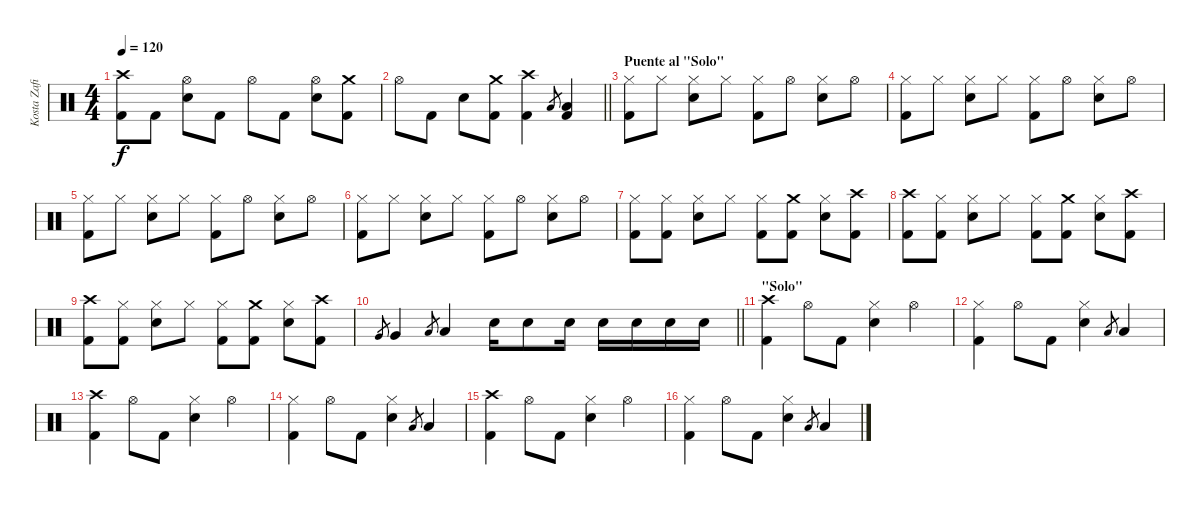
\track ("Kosta Zafiriou" "Kosta Zafi") {instrument percussion}
\staff {score}
\articulation defaults
\ts (4 4)
\tempo 120
\clef neutral
\ks c
("Crash high (hit)" "Kick (hit) 2").8{dy f} "Kick (hit) 2".8 ("Hi-Hat (open)" "Electric Snare (hit)").8 "Kick (hit) 2".8 "Hi-Hat (open)".8 "Kick (hit) 2".8 ("Hi-Hat (open)" "Electric Snare (hit)").8 ("Crash medium (hit)" "Kick (hit) 2").8 |
\barLineRight lightlight "Hi-Hat (open)".8 "Kick (hit) 2".8 "Electric Snare (hit)".8
("Crash medium (hit)" "Kick (hit) 2").8 ("Crash high (hit)" "Kick (hit) 2").4 "Low Floor Tom (hit)".8{gr} ("Low Floor Tom (hit)" "Kick (hit) 2").4 |
\section ("" "Puente al \"Solo\"")
("Hi-Hat (closed)" "Kick (hit) 2").8 "Hi-Hat (closed)".8 ("Hi-Hat (closed)" "Electric Snare (hit)").8 "Hi-Hat (closed)".8 ("Hi-Hat (closed)" "Kick (hit) 2").8 "Hi-Hat (open)".8 ("Hi-Hat (closed)" "Electric Snare (hit)").8 "Hi-Hat (open)".8 |
("Hi-Hat (closed)" "Kick (hit) 2").8 "Hi-Hat (closed)".8 ("Hi-Hat (closed)" "Electric Snare (hit)").8 "Hi-Hat (closed)".8 ("Hi-Hat (closed)" "Kick (hit) 2").8 "Hi-Hat (open)".8 ("Hi-Hat (closed)" "Electric Snare (hit)").8 "Hi-Hat (open)".8 |
("Hi-Hat (closed)" "Kick (hit) 2").8 "Hi-Hat (closed)".8 ("Hi-Hat (closed)" "Electric Snare (hit)").8 "Hi-Hat (closed)".8 ("Hi-Hat (closed)" "Kick (hit) 2").8 "Hi-Hat (open)".8 ("Hi-Hat (closed)" "Electric Snare (hit)").8 "Hi-Hat (open)".8 |
("Hi-Hat (closed)" "Kick (hit) 2").8 "Hi-Hat (closed)".8 ("Hi-Hat (closed)" "Electric Snare (hit)").8 "Hi-Hat (closed)".8 ("Hi-Hat (closed)" "Kick (hit) 2").8 "Hi-Hat (open)".8 ("Hi-Hat (closed)" "Electric Snare (hit)").8 "Hi-Hat (open)".8 |
("Hi-Hat (closed)" "Kick (hit) 2").8 ("Hi-Hat (closed)" "Kick (hit) 2").8 ("Hi-Hat (closed)" "Electric Snare (hit)").8 "Hi-Hat (closed)".8 ("Hi-Hat (closed)" "Kick (hit) 2").8 ("Crash medium (hit)" "Kick (hit) 2").8 ("Hi-Hat (closed)" "Electric Snare (hit)").8 ("Crash high (hit)" "Kick (hit) 2").8 |
("Crash high (hit)" "Kick (hit) 2").8 ("Hi-Hat (closed)" "Kick (hit) 2").8 ("Hi-Hat (closed)" "Electric Snare (hit)").8 "Hi-Hat (closed)".8 ("Hi-Hat (closed)" "Kick (hit) 2").8 ("Crash medium (hit)" "Kick (hit) 2").8 ("Hi-Hat (closed)" "Electric Snare (hit)").8 ("Crash high (hit)" "Kick (hit) 2").8 |
("Crash high (hit)" "Kick (hit) 2").8 ("Hi-Hat (closed)" "Kick (hit) 2").8 ("Hi-Hat (closed)" "Electric Snare (hit)").8 "Hi-Hat (closed)".8 ("Hi-Hat (closed)" "Kick (hit) 2").8 ("Crash medium (hit)" "Kick (hit) 2").8 ("Hi-Hat (closed)" "Electric Snare (hit)").8 ("Crash high (hit)" "Kick (hit) 2").8 |
\barLineRight lightlight "Very Low Tom (hit)".8{gr} "Very Low Tom (hit)".4 "Low Floor Tom (hit)".8{gr} "Low Floor Tom (hit)".4 "Electric Snare (hit)".16 "Electric Snare (hit)".8 "Electric Snare (hit)".16 "Electric Snare (hit)".16 "Electric Snare (hit)".16 "Electric Snare (hit)".16 "Electric Snare (hit)".16
|
\section ("" "\"Solo\"")
("Crash high (hit)" "Kick (hit) 2").4 "Hi-Hat (open)".8 "Kick (hit) 2".8 ("Hi-Hat (closed)" "Electric Snare (hit)").4 "Hi-Hat (open)".4 |
("Hi-Hat (closed)" "Kick (hit) 2").4 "Hi-Hat (open)".8 "Kick (hit) 2".8 ("Hi-Hat (closed)" "Electric Snare (hit)").4 "Low Floor Tom (hit)".8{gr} "Low Floor Tom (hit)".4 |
("Crash high (hit)" "Kick (hit) 2").4 "Hi-Hat (open)".8 "Kick (hit) 2".8 ("Hi-Hat (closed)" "Electric Snare (hit)").4 "Hi-Hat (open)".4 |
("Hi-Hat (closed)" "Kick (hit) 2").4 "Hi-Hat (open)".8 "Kick (hit) 2".8 ("Hi-Hat (closed)" "Electric Snare (hit)").4 "Low Floor Tom (hit)".8{gr} "Low Floor Tom (hit)".4 |
("Crash high (hit)" "Kick (hit) 2").4 "Hi-Hat (open)".8 "Kick (hit) 2".8 ("Hi-Hat (closed)" "Electric Snare (hit)").4 "Hi-Hat (open)".4 |
("Hi-Hat (closed)" "Kick (hit) 2").4 "Hi-Hat (open)".8 "Kick (hit) 2".8 ("Hi-Hat (closed)" "Electric Snare (hit)").4 "Low Floor Tom (hit)".8{gr} "Low Floor Tom (hit)".4
